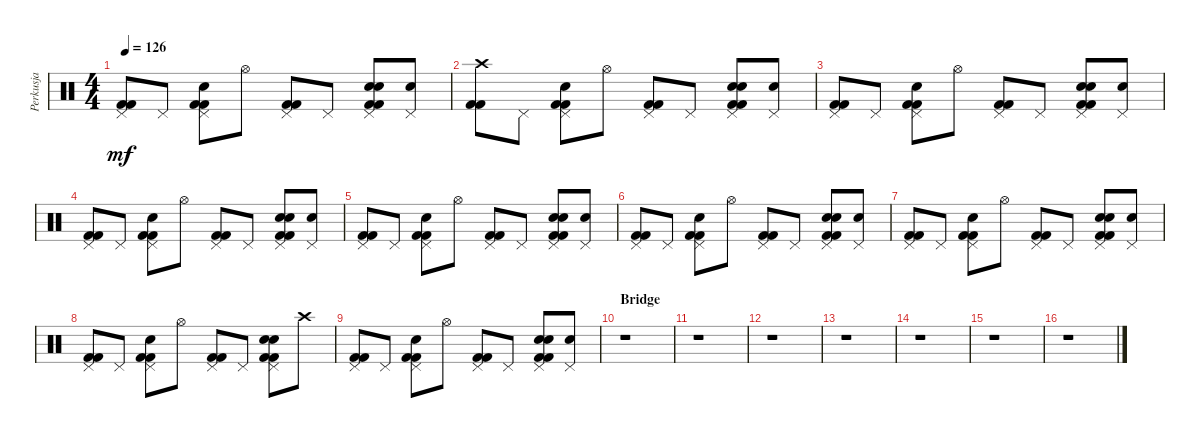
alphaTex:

\track ("Perkusja" "Perkusja") {instrument percussion}
\staff {score}
\articulation defaults
\ts (4 4)
\tempo 126
\clef neutral
\ks c
("Pedal Hi-Hat (hit)" "Kick (hit) 2" "Kick (hit) 2").8{dy mf} "Pedal Hi-Hat (hit)".8 ("Pedal Hi-Hat (hit)" "Snare (hit) 2" "Kick (hit) 2" "Kick (hit) 2").8 "Hi-Hat (open)".8 ("Pedal Hi-Hat (hit)" "Kick (hit) 2" "Kick (hit) 2").8 "Pedal Hi-Hat (hit)".8 ("Pedal Hi-Hat (hit)" "Hand Clap (hit)" "Snare (hit) 2" "Kick (hit) 2" "Kick (hit) 2").8 ("Pedal Hi-Hat (hit)" "Hand Clap (hit)").8 |
("Crash high (hit)" "Kick (hit) 2" "Kick (hit) 2").8 "Pedal Hi-Hat (hit)".8 ("Pedal Hi-Hat (hit)" "Snare (hit) 2" "Kick (hit) 2" "Kick (hit) 2").8 "Hi-Hat (open)".8 ("Pedal Hi-Hat (hit)" "Kick (hit) 2" "Kick (hit) 2").8 "Pedal Hi-Hat (hit)".8 ("Pedal Hi-Hat (hit)" "Hand Clap (hit)" "Snare (hit) 2" "Kick (hit) 2" "Kick (hit) 2").8 ("Pedal Hi-Hat (hit)" "Hand Clap (hit)").8 |
("Pedal Hi-Hat (hit)" "Kick (hit) 2" "Kick (hit) 2").8 "Pedal Hi-Hat (hit)".8 ("Pedal Hi-Hat (hit)" "Snare (hit) 2" "Kick (hit) 2" "Kick (hit) 2").8 "Hi-Hat (open)".8 ("Pedal Hi-Hat (hit)" "Kick (hit) 2" "Kick (hit) 2").8 "Pedal Hi-Hat (hit)".8 ("Pedal Hi-Hat (hit)" "Hand Clap (hit)" "Snare (hit) 2" "Kick (hit) 2" "Kick (hit) 2").8 ("Pedal Hi-Hat (hit)" "Hand Clap (hit)").8 |
("Pedal Hi-Hat (hit)" "Kick (hit) 2" "Kick (hit) 2").8 "Pedal Hi-Hat (hit)".8 ("Pedal Hi-Hat (hit)" "Snare (hit) 2" "Kick (hit) 2" "Kick (hit) 2").8 "Hi-Hat (open)".8 ("Pedal Hi-Hat (hit)" "Kick (hit) 2" "Kick (hit) 2").8 "Pedal Hi-Hat (hit)".8 ("Pedal Hi-Hat (hit)" "Hand Clap (hit)" "Snare (hit) 2" "Kick (hit) 2" "Kick (hit) 2").8 ("Pedal Hi-Hat (hit)" "Hand Clap (hit)").8 |
("Pedal Hi-Hat (hit)" "Kick (hit) 2" "Kick (hit) 2").8 "Pedal Hi-Hat (hit)".8 ("Pedal Hi-Hat (hit)" "Snare (hit) 2" "Kick (hit) 2" "Kick (hit) 2").8 "Hi-Hat (open)".8 ("Pedal Hi-Hat (hit)" "Kick (hit) 2" "Kick (hit) 2").8 "Pedal Hi-Hat (hit)".8 ("Pedal Hi-Hat (hit)" "Hand Clap (hit)" "Snare (hit) 2" "Kick (hit) 2" "Kick (hit) 2").8 ("Pedal Hi-Hat (hit)" "Hand Clap (hit)").8 |
("Pedal Hi-Hat (hit)" "Kick (hit) 2" "Kick (hit) 2").8 "Pedal Hi-Hat (hit)".8 ("Pedal Hi-Hat (hit)" "Snare (hit) 2" "Kick (hit) 2" "Kick (hit) 2").8 "Hi-Hat (open)".8 ("Pedal Hi-Hat (hit)" "Kick (hit) 2" "Kick (hit) 2").8 "Pedal Hi-Hat (hit)".8 ("Pedal Hi-Hat (hit)" "Hand Clap (hit)" "Snare (hit) 2" "Kick (hit) 2" "Kick (hit) 2").8 ("Pedal Hi-Hat (hit)" "Hand Clap (hit)").8 |
("Pedal Hi-Hat (hit)" "Kick (hit) 2" "Kick (hit) 2").8 "Pedal Hi-Hat (hit)".8 ("Pedal Hi-Hat (hit)" "Snare (hit) 2" "Kick (hit) 2" "Kick (hit) 2").8 "Hi-Hat (open)".8 ("Pedal Hi-Hat (hit)" "Kick (hit) 2" "Kick (hit) 2").8 "Pedal Hi-Hat (hit)".8 ("Pedal Hi-Hat (hit)" "Hand Clap (hit)" "Snare (hit) 2" "Kick (hit) 2" "Kick (hit) 2").8 ("Pedal Hi-Hat (hit)" "Hand Clap (hit)").8 |
("Pedal Hi-Hat (hit)" "Kick (hit) 2" "Kick (hit) 2").8 "Pedal Hi-Hat (hit)".8 ("Pedal Hi-Hat (hit)" "Snare (hit) 2" "Kick (hit) 2" "Kick (hit) 2").8 "Hi-Hat (open)".8 ("Pedal Hi-Hat (hit)" "Kick (hit) 2" "Kick (hit) 2").8 "Pedal Hi-Hat (hit)".8 ("Pedal Hi-Hat (hit)" "Hand Clap (hit)" "Snare (hit) 2" "Kick (hit) 2" "Kick (hit) 2").8 "Crash high (hit)".8 |
("Pedal Hi-Hat (hit)" "Kick (hit) 2" "Kick (hit) 2").8 "Pedal Hi-Hat (hit)".8 ("Pedal Hi-Hat (hit)" "Snare (hit) 2" "Kick (hit) 2" "Kick (hit) 2").8 "Hi-Hat (open)".8 ("Pedal Hi-Hat (hit)" "Kick (hit) 2" "Kick (hit) 2").8 "Pedal Hi-Hat (hit)".8 ("Pedal Hi-Hat (hit)" "Hand Clap (hit)" "Snare (hit) 2" "Kick (hit) 2" "Kick (hit) 2").8 ("Pedal Hi-Hat (hit)" "Hand Clap (hit)").8 |
\section ("" "Bridge")
r.1 |
r.1 |
r.1 |
r.1 |
r.1 |
r.1 |
r.1
